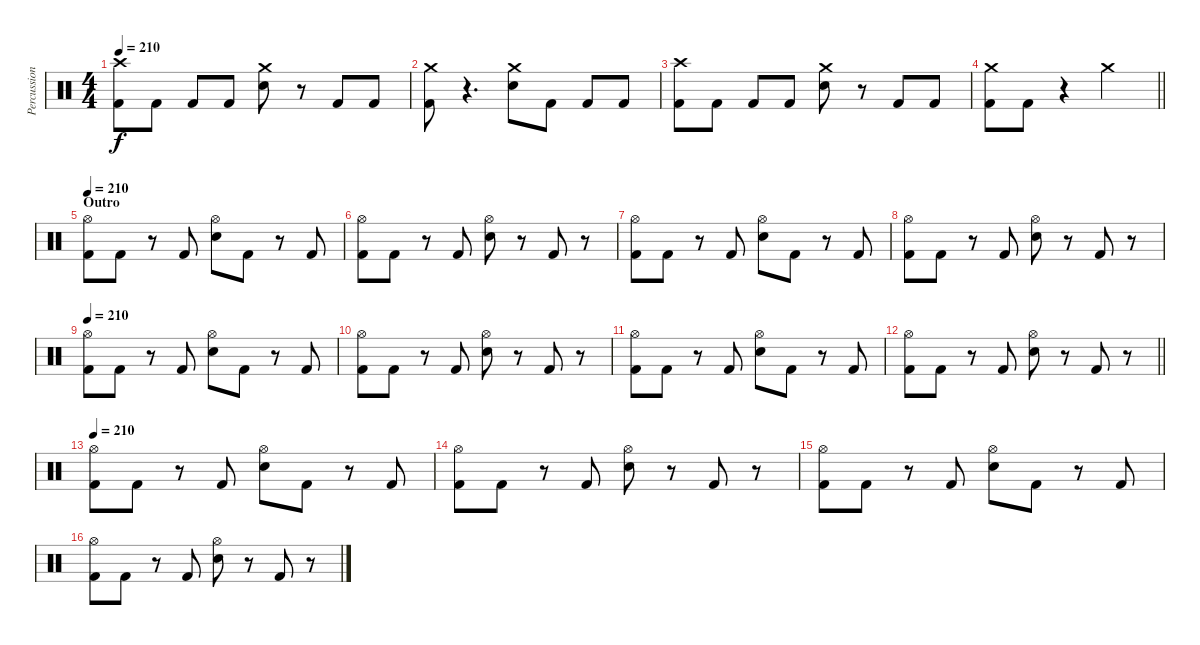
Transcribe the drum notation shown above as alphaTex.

\track ("Percussion" "Percussion") {instrument percussion}
\staff {score}
\articulation defaults
\ts (4 4)
\tempo 210
\clef neutral
\ks c
("Crash high (hit)" "Kick (hit) 2").8{dy f} "Kick (hit) 2".8 "Kick (hit) 2".8 "Kick (hit) 2".8 ("Crash medium (hit)" "Electric Snare (hit)").8 r.8 "Kick (hit) 2".8 "Kick (hit) 2".8 |
("Crash medium (hit)" "Kick (hit) 2").8 r.4{d} ("Crash medium (hit)" "Electric Snare (hit)").8 "Kick (hit) 2".8 "Kick (hit) 2".8 "Kick (hit) 2".8 |
("Crash high (hit)" "Kick (hit) 2").8 "Kick (hit) 2".8 "Kick (hit) 2".8 "Kick (hit) 2".8 ("Crash medium (hit)" "Electric Snare (hit)").8 r.8 "Kick (hit) 2".8 "Kick (hit) 2".8 |
\barLineRight lightlight
("Crash medium (hit)" "Kick (hit) 2").8 "Kick (hit) 2".8 r.4 "Crash medium (hit)".2 |
\section ("" "Outro")
\tempo 210
("Hi-Hat (open)" "Kick (hit) 2").8 "Kick (hit) 2".8 r.8 "Kick (hit) 2".8 ("Hi-Hat (open)" "Electric Snare (hit)").8 "Kick (hit) 2".8 r.8 "Kick (hit) 2".8 |
("Hi-Hat (open)" "Kick (hit) 2").8 "Kick (hit) 2".8 r.8 "Kick (hit) 2".8 ("Hi-Hat (open)" "Electric Snare (hit)").8 r.8 "Kick (hit) 2".8 r.8 |
("Hi-Hat (open)" "Kick (hit) 2").8 "Kick (hit) 2".8 r.8 "Kick (hit) 2".8 ("Hi-Hat (open)" "Electric Snare (hit)").8 "Kick (hit) 2".8 r.8 "Kick (hit) 2".8 |
("Hi-Hat (open)" "Kick (hit) 2").8 "Kick (hit) 2".8 r.8 "Kick (hit) 2".8 ("Hi-Hat (open)" "Electric Snare (hit)").8 r.8 "Kick (hit) 2".8 r.8 |
\tempo 210
("Hi-Hat (open)" "Kick (hit) 2").8 "Kick (hit) 2".8 r.8 "Kick (hit) 2".8 ("Hi-Hat (open)" "Electric Snare (hit)").8 "Kick (hit) 2".8 r.8 "Kick (hit) 2".8 |
("Hi-Hat (open)" "Kick (hit) 2").8 "Kick (hit) 2".8 r.8 "Kick (hit) 2".8 ("Hi-Hat (open)" "Electric Snare (hit)").8 r.8 "Kick (hit) 2".8 r.8 |
("Hi-Hat (open)" "Kick (hit) 2").8 "Kick (hit) 2".8 r.8 "Kick (hit) 2".8 ("Hi-Hat (open)" "Electric Snare (hit)").8 "Kick (hit) 2".8 r.8 "Kick (hit) 2".8 |
\barLineRight lightlight
("Hi-Hat (open)" "Kick (hit) 2").8 "Kick (hit) 2".8 r.8 "Kick (hit) 2".8 ("Hi-Hat (open)" "Electric Snare (hit)").8 r.8 "Kick (hit) 2".8 r.8 |
\tempo 210
("Hi-Hat (open)" "Kick (hit) 2").8 "Kick (hit) 2".8 r.8 "Kick (hit) 2".8 ("Hi-Hat (open)" "Electric Snare (hit)").8 "Kick (hit) 2".8 r.8 "Kick (hit) 2".8 |
("Hi-Hat (open)" "Kick (hit) 2").8 "Kick (hit) 2".8 r.8 "Kick (hit) 2".8 ("Hi-Hat (open)" "Electric Snare (hit)").8 r.8 "Kick (hit) 2".8 r.8 |
("Hi-Hat (open)" "Kick (hit) 2").8 "Kick (hit) 2".8 r.8 "Kick (hit) 2".8 ("Hi-Hat (open)" "Electric Snare (hit)").8 "Kick (hit) 2".8 r.8 "Kick (hit) 2".8 |
("Hi-Hat (open)" "Kick (hit) 2").8 "Kick (hit) 2".8 r.8 "Kick (hit) 2".8 ("Hi-Hat (open)" "Electric Snare (hit)").8 r.8 "Kick (hit) 2".8 r.8
